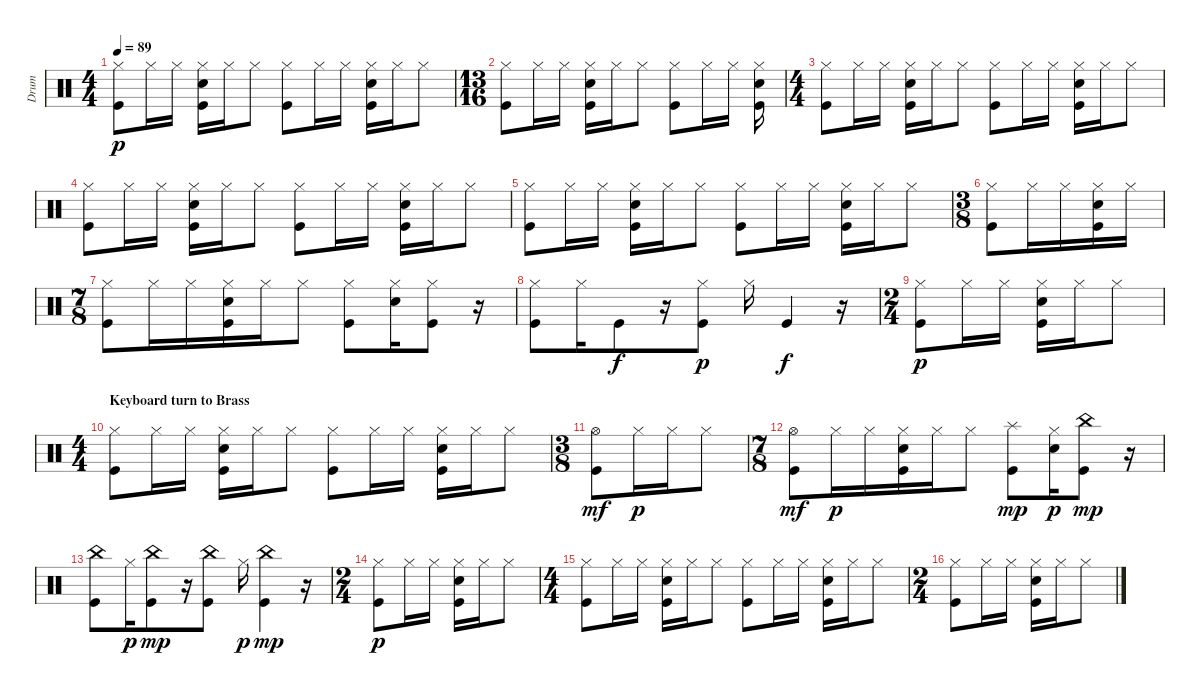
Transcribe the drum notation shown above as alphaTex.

\track ("Drum" "Drum") {instrument percussion}
\staff {score}
\articulation defaults
\ts (4 4)
\tempo 89
\clef neutral
\ks c
("Hi-Hat (closed)" "Kick (hit)").8{dy p} "Hi-Hat (closed)".16 "Hi-Hat (closed)".16 ("Hi-Hat (closed)" "Snare (hit) 2" "Kick (hit)").16 "Hi-Hat (closed)".16 "Hi-Hat (closed)".8 ("Hi-Hat (closed)" "Kick (hit)").8 "Hi-Hat (closed)".16 "Hi-Hat (closed)".16 ("Hi-Hat (closed)" "Snare (hit) 2" "Kick (hit)").16 "Hi-Hat (closed)".16 "Hi-Hat (closed)".8 |
\ts (13 16)
("Hi-Hat (closed)" "Kick (hit)").8 "Hi-Hat (closed)".16 "Hi-Hat (closed)".16 ("Hi-Hat (closed)" "Snare (hit) 2" "Kick (hit)").16 "Hi-Hat (closed)".16 "Hi-Hat (closed)".8 ("Hi-Hat (closed)" "Kick (hit)").8 "Hi-Hat (closed)".16 "Hi-Hat (closed)".16 ("Hi-Hat (closed)" "Snare (hit) 2" "Kick (hit)").16 |
\ts (4 4)
("Hi-Hat (closed)" "Kick (hit)").8 "Hi-Hat (closed)".16 "Hi-Hat (closed)".16 ("Hi-Hat (closed)" "Snare (hit) 2" "Kick (hit)").16 "Hi-Hat (closed)".16 "Hi-Hat (closed)".8 ("Hi-Hat (closed)" "Kick (hit)").8 "Hi-Hat (closed)".16 "Hi-Hat (closed)".16 ("Hi-Hat (closed)" "Snare (hit) 2" "Kick (hit)").16 "Hi-Hat (closed)".16 "Hi-Hat (closed)".8 |
("Hi-Hat (closed)" "Kick (hit)").8 "Hi-Hat (closed)".16 "Hi-Hat (closed)".16 ("Hi-Hat (closed)" "Snare (hit) 2" "Kick (hit)").16 "Hi-Hat (closed)".16 "Hi-Hat (closed)".8 ("Hi-Hat (closed)" "Kick (hit)").8 "Hi-Hat (closed)".16 "Hi-Hat (closed)".16 ("Hi-Hat (closed)" "Snare (hit) 2" "Kick (hit)").16 "Hi-Hat (closed)".16 "Hi-Hat (closed)".8 |
("Hi-Hat (closed)" "Kick (hit)").8 "Hi-Hat (closed)".16 "Hi-Hat (closed)".16 ("Hi-Hat (closed)" "Snare (hit) 2" "Kick (hit)").16 "Hi-Hat (closed)".16 "Hi-Hat (closed)".8 ("Hi-Hat (closed)" "Kick (hit)").8 "Hi-Hat (closed)".16 "Hi-Hat (closed)".16 ("Hi-Hat (closed)" "Snare (hit) 2" "Kick (hit)").16 "Hi-Hat (closed)".16 "Hi-Hat (closed)".8 |
\ts (3 8)
("Hi-Hat (closed)" "Kick (hit)").8 "Hi-Hat (closed)".16 "Hi-Hat (closed)".16 ("Hi-Hat (closed)" "Snare (hit) 2" "Kick (hit)").16 "Hi-Hat (closed)".16 |
\ts (7 8)
("Hi-Hat (closed)" "Kick (hit)").8 "Hi-Hat (closed)".16 "Hi-Hat (closed)".16 ("Hi-Hat (closed)" "Snare (hit) 2" "Kick (hit)").16 "Hi-Hat (closed)".16 "Hi-Hat (closed)".8 ("Hi-Hat (closed)" "Kick (hit)").8 ("Hi-Hat (closed)" "Snare (hit) 2").16 ("Hi-Hat (closed)" "Kick (hit)").8 r.16 |
("Hi-Hat (closed)" "Kick (hit)").8 "Hi-Hat (closed)".16 "Kick (hit)".8{dy f} r.16 ("Hi-Hat (closed)" "Kick (hit)").8{dy p} "Hi-Hat (closed)".16 "Kick (hit)".4{dy f} r.16 |
\ts (2 4)
("Hi-Hat (closed)" "Kick (hit)").8{dy p} "Hi-Hat (closed)".16 "Hi-Hat (closed)".16 ("Hi-Hat (closed)" "Snare (hit) 2" "Kick (hit)").16 "Hi-Hat (closed)".16 "Hi-Hat (closed)".8 |
\ts (4 4)
\section ("" "Keyboard turn to Brass")
("Hi-Hat (closed)" "Kick (hit)").8 "Hi-Hat (closed)".16 "Hi-Hat (closed)".16 ("Hi-Hat (closed)" "Snare (hit) 2" "Kick (hit)").16 "Hi-Hat (closed)".16 "Hi-Hat (closed)".8 ("Hi-Hat (closed)" "Kick (hit)").8 "Hi-Hat (closed)".16 "Hi-Hat (closed)".16 ("Hi-Hat (closed)" "Snare (hit) 2" "Kick (hit)").16 "Hi-Hat (closed)".16 "Hi-Hat (closed)".8 |
\ts (3 8)
("Hi-Hat (open)" "Kick (hit)").8{dy mf} "Hi-Hat (closed)".16{dy p} "Hi-Hat (closed)".16 "Hi-Hat (closed)".8 |
\ts (7 8)
("Hi-Hat (open)" "Kick (hit)").8{dy mf} "Hi-Hat (closed)".16{dy p} "Hi-Hat (closed)".16 ("Hi-Hat (closed)" "Snare (hit) 2" "Kick (hit)").16 "Hi-Hat (closed)".16 "Hi-Hat (closed)".8 ("Splash (hit)" "Kick (hit)").8{dy mp} ("Hi-Hat (closed)" "Snare (hit) 2").16{dy p} ("China (hit)" "Kick (hit)").8{dy mp} r.16 |
("China (hit)" "Kick (hit)").8 "Hi-Hat (closed)".16{dy p} ("China (hit)" "Kick (hit)").8{dy mp} r.16 ("China (hit)" "Kick (hit)").8 "Hi-Hat (closed)".16{dy p} ("China (hit)" "Kick (hit)").4{dy mp} r.16 |
\ts (2 4)
("Hi-Hat (closed)" "Kick (hit)").8{dy p} "Hi-Hat (closed)".16 "Hi-Hat (closed)".16 ("Hi-Hat (closed)" "Snare (hit) 2" "Kick (hit)").16 "Hi-Hat (closed)".16 "Hi-Hat (closed)".8 |
\ts (4 4)
("Hi-Hat (closed)" "Kick (hit)").8 "Hi-Hat (closed)".16 "Hi-Hat (closed)".16 ("Hi-Hat (closed)" "Snare (hit) 2" "Kick (hit)").16 "Hi-Hat (closed)".16 "Hi-Hat (closed)".8 ("Hi-Hat (closed)" "Kick (hit)").8 "Hi-Hat (closed)".16 "Hi-Hat (closed)".16 ("Hi-Hat (closed)" "Snare (hit) 2" "Kick (hit)").16 "Hi-Hat (closed)".16 "Hi-Hat (closed)".8 |
\ts (2 4)
("Hi-Hat (closed)" "Kick (hit)").8 "Hi-Hat (closed)".16 "Hi-Hat (closed)".16 ("Hi-Hat (closed)" "Snare (hit) 2" "Kick (hit)").16 "Hi-Hat (closed)".16 "Hi-Hat (closed)".8
